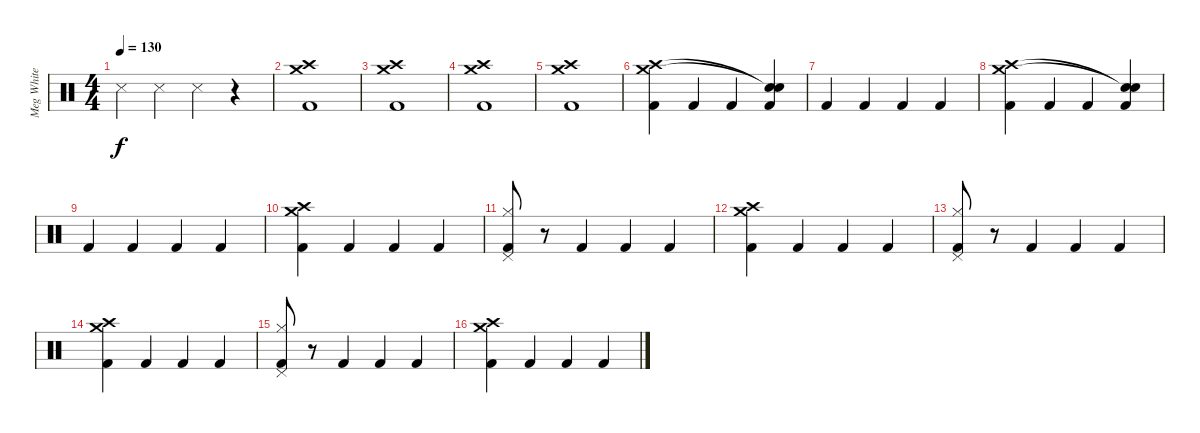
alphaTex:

\track ("Meg White" "Meg White") {instrument percussion}
\staff {score}
\articulation defaults
\ts (4 4)
\tempo 130
\clef neutral
\ks c "Metronome (hit)".4{dy f} "Metronome (hit)".4 "Metronome (hit)".4
r.4 |
("Kick (hit) 2" "Crash high (hit)" "Crash medium (hit)").1 |
("Kick (hit) 2" "Crash high (hit)" "Crash medium (hit)").1 |
("Kick (hit) 2" "Crash high (hit)" "Crash medium (hit)").1 |
("Kick (hit) 2" "Crash high (hit)" "Crash medium (hit)").1 |
("Kick (hit) 2" "Crash high (hit)" "Crash medium (hit)").4 "Kick (hit) 2".4 "Kick (hit) 2".4 ("Kick (hit) 2" "Snare (hit)"{t} "Snare (hit)"{t}).4 |
"Kick (hit) 2".4 "Kick (hit) 2".4 "Kick (hit) 2".4 "Kick (hit) 2".4 |
("Kick (hit) 2" "Crash high (hit)" "Crash medium (hit)").4 "Kick (hit) 2".4 "Kick (hit) 2".4 ("Kick (hit) 2" "Snare (hit)"{t} "Snare (hit)"{t}).4 |
"Kick (hit) 2".4 "Kick (hit) 2".4 "Kick (hit) 2".4 "Kick (hit) 2".4 |
("Kick (hit) 2" "Crash high (hit)" "Crash medium (hit)").4 "Kick (hit) 2".4 "Kick (hit) 2".4 "Kick (hit) 2".4 |
("Kick (hit) 2" "Hi-Hat (closed)" "Pedal Hi-Hat (hit)").8 r.8 "Kick (hit) 2".4 "Kick (hit) 2".4 "Kick (hit) 2".4 |
("Kick (hit) 2" "Crash high (hit)" "Crash medium (hit)").4 "Kick (hit) 2".4 "Kick (hit) 2".4 "Kick (hit) 2".4 |
("Kick (hit) 2" "Hi-Hat (closed)" "Pedal Hi-Hat (hit)").8 r.8 "Kick (hit) 2".4 "Kick (hit) 2".4 "Kick (hit) 2".4 |
("Kick (hit) 2" "Crash high (hit)" "Crash medium (hit)").4 "Kick (hit) 2".4 "Kick (hit) 2".4 "Kick (hit) 2".4 |
("Kick (hit) 2" "Hi-Hat (closed)" "Pedal Hi-Hat (hit)").8 r.8 "Kick (hit) 2".4 "Kick (hit) 2".4 "Kick (hit) 2".4 |
("Kick (hit) 2" "Crash high (hit)" "Crash medium (hit)").4 "Kick (hit) 2".4 "Kick (hit) 2".4 "Kick (hit) 2".4
